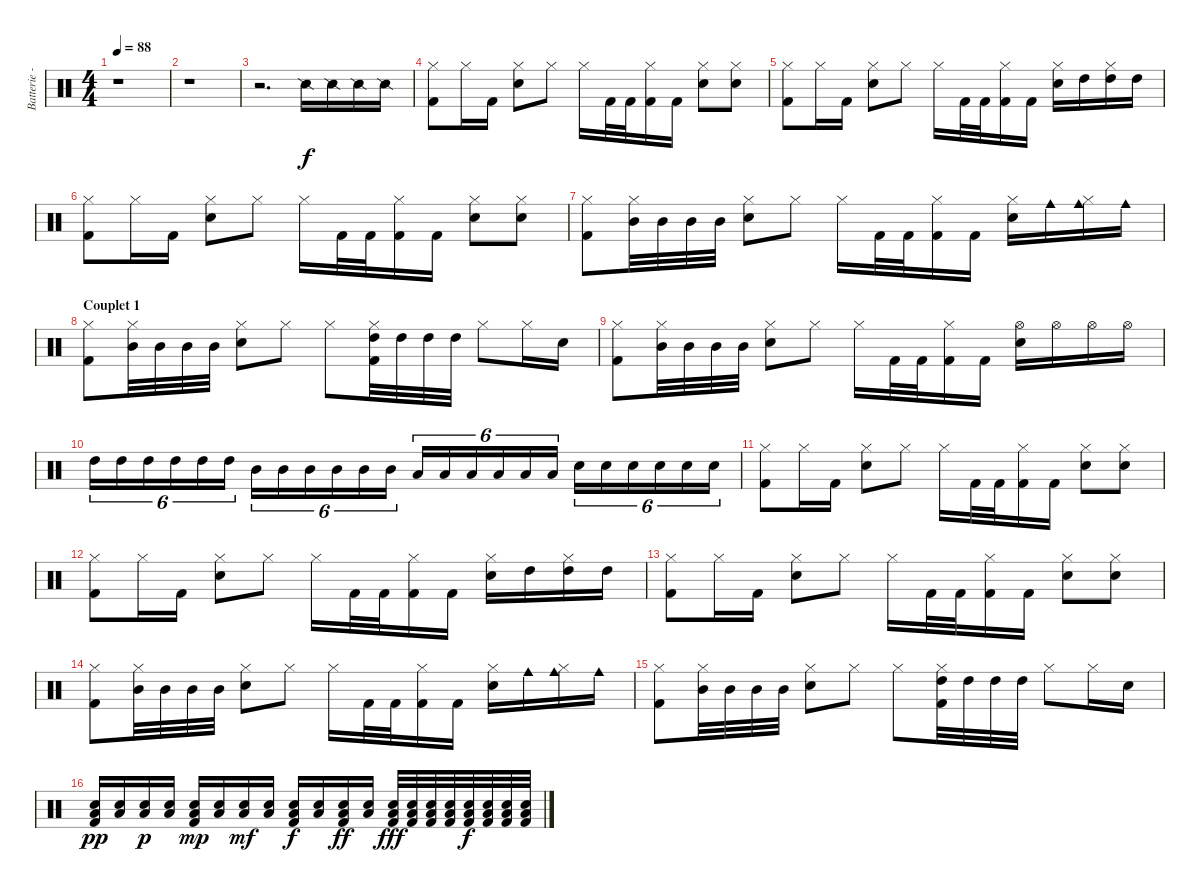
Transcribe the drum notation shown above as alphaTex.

\track ("Batterie - Franz'" "Batterie -") {instrument percussion}
\staff {score}
\articulation defaults
\ts (4 4)
\tempo 88
\clef neutral
\ks c
r.1{dy f} |
r.1 |
r.2{d} "Snare (side stick) 2".16 "Snare (side stick) 2".16 "Snare (side stick) 2".16 "Snare (side stick) 2".16 |
("Hi-Hat (closed)" "Kick (hit) 2").8 "Hi-Hat (closed)".16 "Kick (hit) 2".16 ("Hi-Hat (closed)" "Electric Snare (hit)").8 "Hi-Hat (closed)".8 "Hi-Hat (closed)".16 "Kick (hit) 2".32 "Kick (hit) 2".32 ("Hi-Hat (closed)" "Kick (hit) 2").16 "Kick (hit) 2".16 ("Hi-Hat (closed)" "Electric Snare (hit)").8 ("Hi-Hat (closed)" "Electric Snare (hit)").8 |
("Hi-Hat (closed)" "Kick (hit) 2").8 "Hi-Hat (closed)".16 "Kick (hit) 2".16 ("Hi-Hat (closed)" "Electric Snare (hit)").8 "Hi-Hat (closed)".8 "Hi-Hat (closed)".16 "Kick (hit) 2".32 "Kick (hit) 2".32 ("Hi-Hat (closed)" "Kick (hit) 2").16 "Kick (hit) 2".16 ("Hi-Hat (closed)" "Electric Snare (hit)").16 "High Tom (hit)".16 ("Hi-Hat (closed)" "High Tom (hit)").16 "High Tom (hit)".16 |
("Hi-Hat (closed)" "Kick (hit) 2").8 "Hi-Hat (closed)".16 "Kick (hit) 2".16 ("Hi-Hat (closed)" "Electric Snare (hit)").8 "Hi-Hat (closed)".8 "Hi-Hat (closed)".16 "Kick (hit) 2".32 "Kick (hit) 2".32 ("Hi-Hat (closed)" "Kick (hit) 2").16 "Kick (hit) 2".16 ("Hi-Hat (closed)" "Electric Snare (hit)").8 ("Hi-Hat (closed)" "Electric Snare (hit)").8 |
("Hi-Hat (closed)" "Kick (hit) 2").8 ("Hi-Hat (closed)" "Mid Tom (hit)").32 "Mid Tom (hit)".32 "Mid Tom (hit)".32 "Mid Tom (hit)".32 ("Hi-Hat (closed)" "Electric Snare (hit)").8 "Hi-Hat (closed)".8 "Hi-Hat (closed)".16 "Kick (hit) 2".32 "Kick (hit) 2".32 ("Hi-Hat (closed)" "Kick (hit) 2").16 "Kick (hit) 2".16 ("Hi-Hat (closed)" "Electric Snare (hit)").16 "Cowbell medium (hit)".16 ("Hi-Hat (closed)" "Cowbell medium (hit)").16 "Cowbell medium (hit)".16 |
\section ("" "Couplet 1")
("Hi-Hat (closed)" "Kick (hit) 2").8 ("Hi-Hat (closed)" "Mid Tom (hit)").32 "Mid Tom (hit)".32 "Mid Tom (hit)".32 "Mid Tom (hit)".32 ("Hi-Hat (closed)" "Electric Snare (hit)").8 "Hi-Hat (closed)".8 "Hi-Hat (closed)".8 ("Hi-Hat (closed)" "High Tom (hit)" "Kick (hit) 2").32 "High Tom (hit)".32 "High Tom (hit)".32 "High Tom (hit)".32 "Hi-Hat (closed)".8 "Hi-Hat (closed)".16 "Electric Snare (hit)".16 |
("Hi-Hat (closed)" "Kick (hit) 2").8 ("Hi-Hat (closed)" "Mid Tom (hit)").32 "Mid Tom (hit)".32 "Mid Tom (hit)".32 "Mid Tom (hit)".32 ("Hi-Hat (closed)" "Electric Snare (hit)").8 "Hi-Hat (closed)".8 "Hi-Hat (closed)".16 "Kick (hit) 2".32 "Kick (hit) 2".32 ("Hi-Hat (closed)" "Kick (hit) 2").16 "Kick (hit) 2".16 ("Hi-Hat (open)" "Electric Snare (hit)").16 "Hi-Hat (open)".16 "Hi-Hat (open)".16 "Hi-Hat (open)".16 |
"High Tom (hit)".16{tu (6 4)} "High Tom (hit)".16{tu (6 4)} "High Tom (hit)".16{tu (6 4)} "High Tom (hit)".16{tu (6 4)} "High Tom (hit)".16{tu (6 4)} "High Tom (hit)".16{tu (6 4)} "Mid Tom (hit)".16{tu (6 4)} "Mid Tom (hit)".16{tu (6 4)} "Mid Tom (hit)".16{tu (6 4)} "Mid Tom (hit)".16{tu (6 4)} "Mid Tom (hit)".16{tu (6 4)} "Mid Tom (hit)".16{tu (6 4)} "Low Tom (hit)".16{tu (6 4)} "Low Tom (hit)".16{tu (6 4)} "Low Tom (hit)".16{tu (6 4)} "Low Tom (hit)".16{tu (6 4)} "Low Tom (hit)".16{tu (6 4)} "Low Tom (hit)".16{tu (6 4)} "Electric Snare (hit)".16{tu (6 4)} "Electric Snare (hit)".16{tu (6 4)} "Electric Snare (hit)".16{tu (6 4)} "Electric Snare (hit)".16{tu (6 4)} "Electric Snare (hit)".16{tu (6 4)} "Electric Snare (hit)".16{tu (6 4)} |
("Hi-Hat (closed)" "Kick (hit) 2").8 "Hi-Hat (closed)".16 "Kick (hit) 2".16 ("Hi-Hat (closed)" "Electric Snare (hit)").8 "Hi-Hat (closed)".8 "Hi-Hat (closed)".16 "Kick (hit) 2".32 "Kick (hit) 2".32 ("Hi-Hat (closed)" "Kick (hit) 2").16 "Kick (hit) 2".16 ("Hi-Hat (closed)" "Electric Snare (hit)").8 ("Hi-Hat (closed)" "Electric Snare (hit)").8 |
("Hi-Hat (closed)" "Kick (hit) 2").8 "Hi-Hat (closed)".16 "Kick (hit) 2".16 ("Hi-Hat (closed)" "Electric Snare (hit)").8 "Hi-Hat (closed)".8 "Hi-Hat (closed)".16 "Kick (hit) 2".32 "Kick (hit) 2".32 ("Hi-Hat (closed)" "Kick (hit) 2").16 "Kick (hit) 2".16 ("Hi-Hat (closed)" "Electric Snare (hit)").16 "High Tom (hit)".16 ("Hi-Hat (closed)" "High Tom (hit)").16 "High Tom (hit)".16 |
("Hi-Hat (closed)" "Kick (hit) 2").8 "Hi-Hat (closed)".16 "Kick (hit) 2".16 ("Hi-Hat (closed)" "Electric Snare (hit)").8 "Hi-Hat (closed)".8 "Hi-Hat (closed)".16 "Kick (hit) 2".32 "Kick (hit) 2".32 ("Hi-Hat (closed)" "Kick (hit) 2").16 "Kick (hit) 2".16 ("Hi-Hat (closed)" "Electric Snare (hit)").8 ("Hi-Hat (closed)" "Electric Snare (hit)").8 |
("Hi-Hat (closed)" "Kick (hit) 2").8 ("Hi-Hat (closed)" "Mid Tom (hit)").32 "Mid Tom (hit)".32 "Mid Tom (hit)".32 "Mid Tom (hit)".32 ("Hi-Hat (closed)" "Electric Snare (hit)").8 "Hi-Hat (closed)".8 "Hi-Hat (closed)".16 "Kick (hit) 2".32 "Kick (hit) 2".32 ("Hi-Hat (closed)" "Kick (hit) 2").16 "Kick (hit) 2".16 ("Hi-Hat (closed)" "Electric Snare (hit)").16 "Cowbell medium (hit)".16 ("Hi-Hat (closed)" "Cowbell medium (hit)").16 "Cowbell medium (hit)".16 |
("Hi-Hat (closed)" "Kick (hit) 2").8 ("Hi-Hat (closed)" "Mid Tom (hit)").32 "Mid Tom (hit)".32 "Mid Tom (hit)".32 "Mid Tom (hit)".32 ("Hi-Hat (closed)" "Electric Snare (hit)").8 "Hi-Hat (closed)".8 "Hi-Hat (closed)".8 ("Hi-Hat (closed)" "High Tom (hit)" "Kick (hit) 2").32 "High Tom (hit)".32 "High Tom (hit)".32 "High Tom (hit)".32 "Hi-Hat (closed)".8 "Hi-Hat (closed)".16 "Electric Snare (hit)".16 |
("Electric Snare (hit)" "Low Tom (hit)" "Kick (hit) 2").16{dy pp} ("Electric Snare (hit)" "Low Tom (hit)").16 ("Electric Snare (hit)" "Low Tom (hit)").16{dy p} ("Electric Snare (hit)" "Low Tom (hit)").16 ("Electric Snare (hit)" "Low Tom (hit)" "Kick (hit) 2").16{dy mp} ("Electric Snare (hit)" "Low Tom (hit)").16 ("Electric Snare (hit)" "Low Tom (hit)").16{dy mf} ("Electric Snare (hit)" "Low Tom (hit)").16 ("Electric Snare (hit)" "Low Tom (hit)" "Kick (hit) 2").16{dy f} ("Electric Snare (hit)" "Low Tom (hit)").16 ("Electric Snare (hit)" "Low Tom (hit)" "Kick (hit) 2").16{dy ff} ("Electric Snare (hit)" "Low Tom (hit)").16 ("Electric Snare (hit)" "Low Tom (hit)" "Kick (hit) 2").32{dy fff} ("Electric Snare (hit)" "Low Tom (hit)" "Kick (hit) 2").32 ("Electric Snare (hit)" "Low Tom (hit)" "Kick (hit) 2").32 ("Electric Snare (hit)" "Low Tom (hit)" "Kick (hit) 2").32 ("Electric Snare (hit)" "Low Tom (hit)" "Kick (hit) 2").32{dy f} ("Electric Snare (hit)" "Low Tom (hit)" "Kick (hit) 2").32 ("Electric Snare (hit)" "Low Tom (hit)" "Kick (hit) 2").32 ("Electric Snare (hit)" "Low Tom (hit)" "Kick (hit) 2").32
